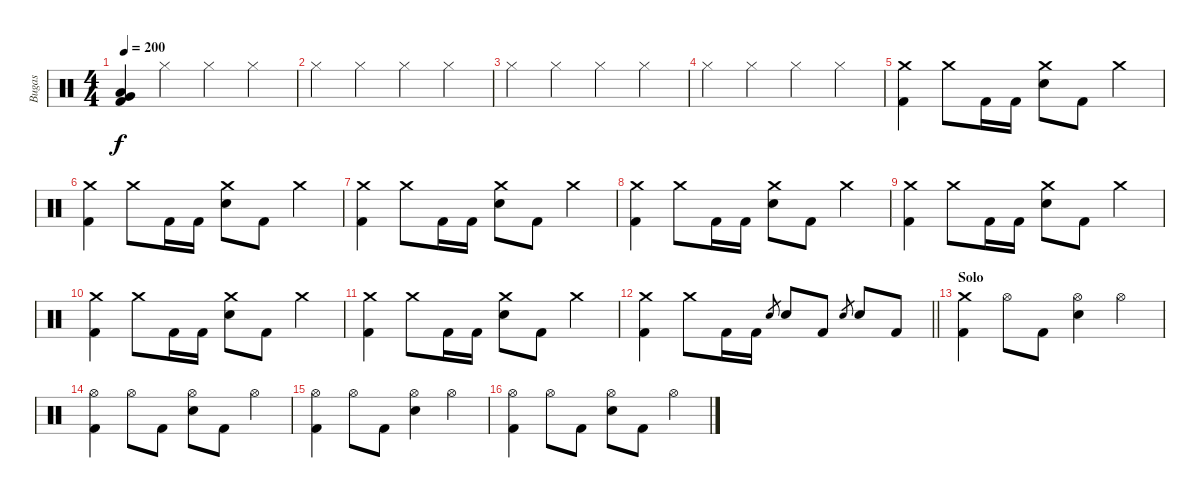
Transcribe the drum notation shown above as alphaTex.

\track ("Bugas" "Bugas") {instrument percussion}
\staff {score}
\articulation defaults
\ts (4 4)
\tempo 200
\clef neutral
\ks c
("Very Low Tom (hit)" "Low Tom (hit)" "Kick (hit) 2").4{dy f} "Hi-Hat (closed)".4 "Hi-Hat (closed)".4 "Hi-Hat (closed)".4 |
"Hi-Hat (closed)".4 "Hi-Hat (closed)".4 "Hi-Hat (closed)".4 "Hi-Hat (closed)".4 |
"Hi-Hat (closed)".4 "Hi-Hat (closed)".4 "Hi-Hat (closed)".4 "Hi-Hat (closed)".4 |
"Hi-Hat (closed)".4 "Hi-Hat (closed)".4 "Hi-Hat (closed)".4 "Hi-Hat (closed)".4 |
("Crash medium (hit)" "Kick (hit) 2").4 "Crash medium (hit)".8 "Kick (hit) 2".16 "Kick (hit) 2".16 ("Crash medium (hit)" "Electric Snare (hit)").8 "Kick (hit) 2".8 "Crash medium (hit)".4 |
("Crash medium (hit)" "Kick (hit) 2").4 "Crash medium (hit)".8 "Kick (hit) 2".16 "Kick (hit) 2".16 ("Crash medium (hit)" "Electric Snare (hit)").8 "Kick (hit) 2".8 "Crash medium (hit)".4 |
("Crash medium (hit)" "Kick (hit) 2").4 "Crash medium (hit)".8 "Kick (hit) 2".16 "Kick (hit) 2".16 ("Crash medium (hit)" "Electric Snare (hit)").8 "Kick (hit) 2".8 "Crash medium (hit)".4 |
("Crash medium (hit)" "Kick (hit) 2").4 "Crash medium (hit)".8 "Kick (hit) 2".16 "Kick (hit) 2".16 ("Crash medium (hit)" "Electric Snare (hit)").8 "Kick (hit) 2".8 "Crash medium (hit)".4 |
("Crash medium (hit)" "Kick (hit) 2").4 "Crash medium (hit)".8 "Kick (hit) 2".16 "Kick (hit) 2".16 ("Crash medium (hit)" "Electric Snare (hit)").8 "Kick (hit) 2".8 "Crash medium (hit)".4 |
("Crash medium (hit)" "Kick (hit) 2").4 "Crash medium (hit)".8 "Kick (hit) 2".16 "Kick (hit) 2".16 ("Crash medium (hit)" "Electric Snare (hit)").8 "Kick (hit) 2".8 "Crash medium (hit)".4 |
("Crash medium (hit)" "Kick (hit) 2").4 "Crash medium (hit)".8 "Kick (hit) 2".16 "Kick (hit) 2".16 ("Crash medium (hit)" "Electric Snare (hit)").8 "Kick (hit) 2".8 "Crash medium (hit)".4 |
\barLineRight lightlight
("Crash medium (hit)" "Kick (hit) 2").4 "Crash medium (hit)".8 "Kick (hit) 2".16 "Kick (hit) 2".16 "Electric Snare (hit)".8{gr} "Electric Snare (hit)".8 "Kick (hit) 2".8 "Electric Snare (hit)".8{gr} "Electric Snare (hit)".8 "Kick (hit) 2".8 |
\section ("" "Solo")
("Crash medium (hit)" "Kick (hit) 2").4 "Hi-Hat (open)".8 "Kick (hit) 2".8 ("Hi-Hat (open)" "Electric Snare (hit)").4 "Hi-Hat (open)".4 |
("Hi-Hat (open)" "Kick (hit) 2").4 "Hi-Hat (open)".8 "Kick (hit) 2".8 ("Hi-Hat (open)" "Electric Snare (hit)").8 "Kick (hit) 2".8 "Hi-Hat (open)".4 |
("Hi-Hat (open)" "Kick (hit) 2").4 "Hi-Hat (open)".8 "Kick (hit) 2".8 ("Hi-Hat (open)" "Electric Snare (hit)").4 "Hi-Hat (open)".4 |
("Hi-Hat (open)" "Kick (hit) 2").4 "Hi-Hat (open)".8 "Kick (hit) 2".8 ("Hi-Hat (open)" "Electric Snare (hit)").8 "Kick (hit) 2".8 "Hi-Hat (open)".4
